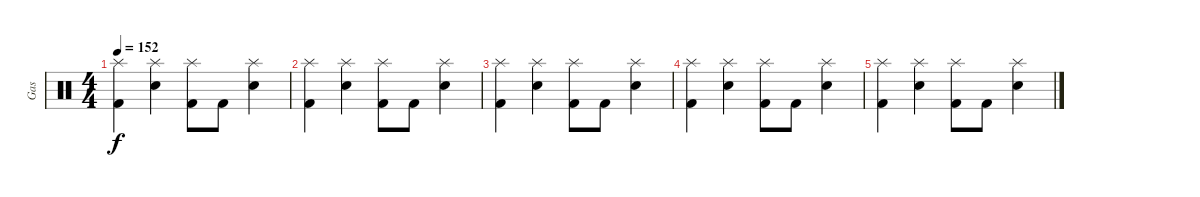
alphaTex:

\track ("Gas" "Gas") {instrument percussion}
\staff {score}
\articulation defaults
\ts (4 4)
\tempo 152
\clef neutral
\ks c
("Splash (hit)" "Kick (hit) 2").4{dy f} ("Splash (hit)" "Electric Snare (hit)").4 ("Splash (hit)" "Kick (hit) 2").8 "Kick (hit) 2".8 ("Splash (hit)" "Electric Snare (hit)").4 |
("Splash (hit)" "Kick (hit) 2").4 ("Splash (hit)" "Electric Snare (hit)").4 ("Splash (hit)" "Kick (hit) 2").8 "Kick (hit) 2".8 ("Splash (hit)" "Electric Snare (hit)").4 |
("Splash (hit)" "Kick (hit) 2").4 ("Splash (hit)" "Electric Snare (hit)").4 ("Splash (hit)" "Kick (hit) 2").8 "Kick (hit) 2".8 ("Splash (hit)" "Electric Snare (hit)").4 |
("Splash (hit)" "Kick (hit) 2").4 ("Splash (hit)" "Electric Snare (hit)").4 ("Splash (hit)" "Kick (hit) 2").8 "Kick (hit) 2".8 ("Splash (hit)" "Electric Snare (hit)").4 |
("Splash (hit)" "Kick (hit) 2").4 ("Splash (hit)" "Electric Snare (hit)").4 ("Splash (hit)" "Kick (hit) 2").8 "Kick (hit) 2".8 ("Splash (hit)" "Electric Snare (hit)").4
